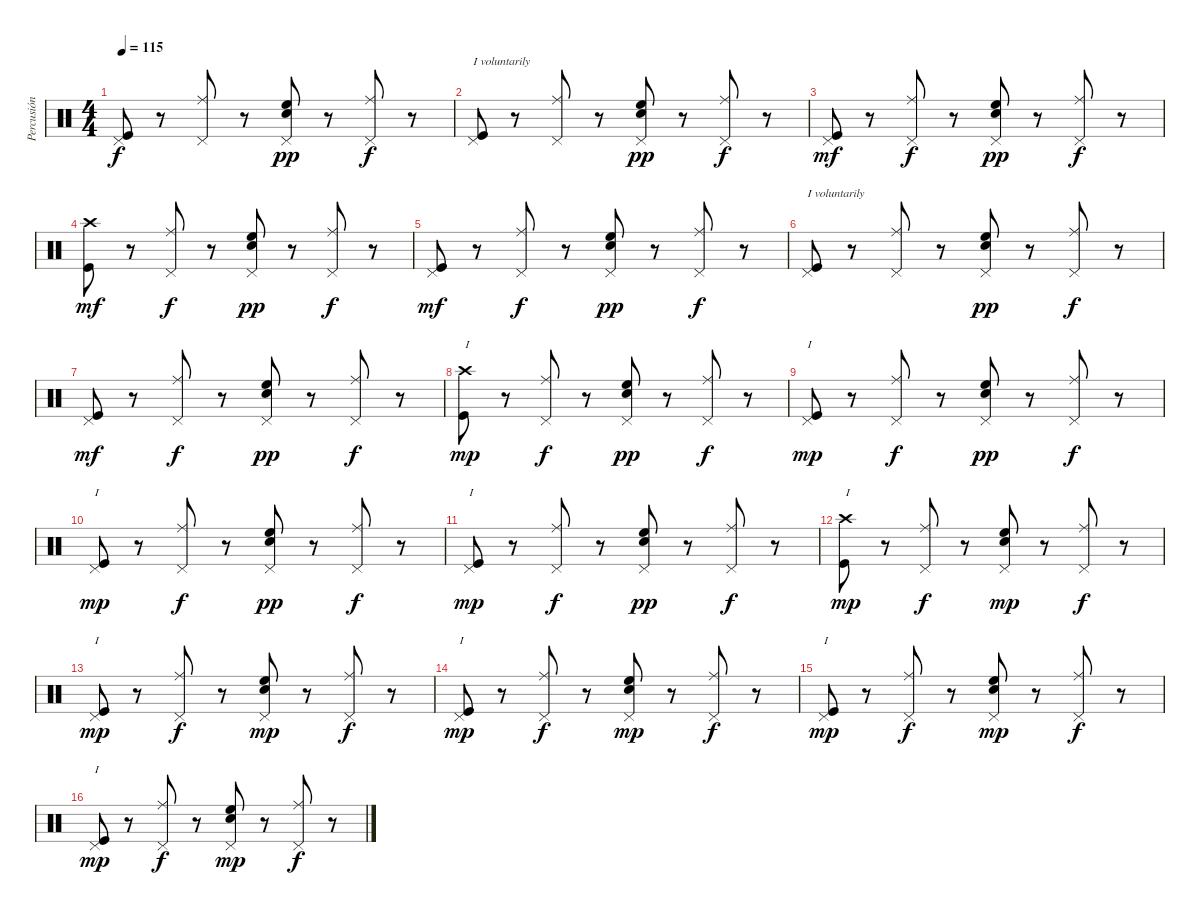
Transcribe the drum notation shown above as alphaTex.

\track ("Percusión" "Percusión") {instrument percussion}
\staff {score}
\articulation defaults
\ts (4 4)
\tempo 115
\clef neutral
\ks c
("Pedal Hi-Hat (hit)" "Kick (hit)").8{dy f} r.8 ("Pedal Hi-Hat (hit)" "Ride (middle)").8 r.8 ("Pedal Hi-Hat (hit)" "High Floor Tom (hit)" "Electric Snare (hit)").8{dy pp} r.8 ("Pedal Hi-Hat (hit)" "Ride (middle)").8{dy f} r.8 |
("Pedal Hi-Hat (hit)" "Kick (hit)").8{txt "I voluntarily"} r.8 ("Pedal Hi-Hat (hit)" "Ride (middle)").8 r.8 ("Pedal Hi-Hat (hit)" "High Floor Tom (hit)" "Electric Snare (hit)").8{dy pp} r.8 ("Pedal Hi-Hat (hit)" "Ride (middle)").8{dy f} r.8 |
("Pedal Hi-Hat (hit)" "Kick (hit)").8{dy mf} r.8 ("Pedal Hi-Hat (hit)" "Ride (middle)").8{dy f} r.8 ("Pedal Hi-Hat (hit)" "High Floor Tom (hit)" "Electric Snare (hit)").8{dy pp} r.8 ("Pedal Hi-Hat (hit)" "Ride (middle)").8{dy f} r.8 |
("Crash high (hit)" "Kick (hit)").8{dy mf} r.8 ("Pedal Hi-Hat (hit)" "Ride (middle)").8{dy f} r.8 ("Pedal Hi-Hat (hit)" "High Floor Tom (hit)" "Electric Snare (hit)").8{dy pp} r.8 ("Pedal Hi-Hat (hit)" "Ride (middle)").8{dy f} r.8 |
("Pedal Hi-Hat (hit)" "Kick (hit)").8{dy mf} r.8 ("Pedal Hi-Hat (hit)" "Ride (middle)").8{dy f} r.8 ("Pedal Hi-Hat (hit)" "High Floor Tom (hit)" "Electric Snare (hit)").8{dy pp} r.8 ("Pedal Hi-Hat (hit)" "Ride (middle)").8{dy f} r.8 |
("Pedal Hi-Hat (hit)" "Kick (hit)").8{txt "I voluntarily"} r.8 ("Pedal Hi-Hat (hit)" "Ride (middle)").8 r.8 ("Pedal Hi-Hat (hit)" "High Floor Tom (hit)" "Electric Snare (hit)").8{dy pp} r.8 ("Pedal Hi-Hat (hit)" "Ride (middle)").8{dy f} r.8 |
("Pedal Hi-Hat (hit)" "Kick (hit)").8{dy mf} r.8 ("Pedal Hi-Hat (hit)" "Ride (middle)").8{dy f} r.8 ("Pedal Hi-Hat (hit)" "High Floor Tom (hit)" "Electric Snare (hit)").8{dy pp} r.8 ("Pedal Hi-Hat (hit)" "Ride (middle)").8{dy f} r.8 |
("Crash high (hit)" "Kick (hit)").8{txt "I" dy mp} r.8 ("Pedal Hi-Hat (hit)" "Ride (middle)").8{dy f} r.8 ("Pedal Hi-Hat (hit)" "Electric Snare (hit)" "High Floor Tom (hit)").8{dy pp} r.8 ("Pedal Hi-Hat (hit)" "Ride (middle)").8{dy f} r.8 |
("Pedal Hi-Hat (hit)" "Kick (hit)").8{txt "I" dy mp} r.8 ("Pedal Hi-Hat (hit)" "Ride (middle)").8{dy f} r.8 ("Pedal Hi-Hat (hit)" "Electric Snare (hit)" "High Floor Tom (hit)").8{dy pp} r.8 ("Pedal Hi-Hat (hit)" "Ride (middle)").8{dy f} r.8 |
("Pedal Hi-Hat (hit)" "Kick (hit)").8{txt "I" dy mp} r.8 ("Pedal Hi-Hat (hit)" "Ride (middle)").8{dy f} r.8 ("Pedal Hi-Hat (hit)" "Electric Snare (hit)" "High Floor Tom (hit)").8{dy pp} r.8 ("Pedal Hi-Hat (hit)" "Ride (middle)").8{dy f} r.8 |
("Pedal Hi-Hat (hit)" "Kick (hit)").8{txt "I" dy mp} r.8 ("Pedal Hi-Hat (hit)" "Ride (middle)").8{dy f} r.8 ("Pedal Hi-Hat (hit)" "Electric Snare (hit)" "High Floor Tom (hit)").8{dy pp} r.8 ("Pedal Hi-Hat (hit)" "Ride (middle)").8{dy f} r.8 |
("Crash high (hit)" "Kick (hit)").8{txt "I" dy mp} r.8 ("Pedal Hi-Hat (hit)" "Ride (middle)").8{dy f} r.8 ("Pedal Hi-Hat (hit)" "Electric Snare (hit)" "High Floor Tom (hit)").8{dy mp} r.8 ("Pedal Hi-Hat (hit)" "Ride (middle)").8{dy f} r.8 |
("Pedal Hi-Hat (hit)" "Kick (hit)").8{txt "I" dy mp} r.8 ("Pedal Hi-Hat (hit)" "Ride (middle)").8{dy f} r.8 ("Pedal Hi-Hat (hit)" "Electric Snare (hit)" "High Floor Tom (hit)").8{dy mp} r.8 ("Pedal Hi-Hat (hit)" "Ride (middle)").8{dy f} r.8 |
("Pedal Hi-Hat (hit)" "Kick (hit)").8{txt "I" dy mp} r.8 ("Pedal Hi-Hat (hit)" "Ride (middle)").8{dy f} r.8 ("Pedal Hi-Hat (hit)" "Electric Snare (hit)" "High Floor Tom (hit)").8{dy mp} r.8 ("Pedal Hi-Hat (hit)" "Ride (middle)").8{dy f} r.8 |
("Pedal Hi-Hat (hit)" "Kick (hit)").8{txt "I" dy mp} r.8 ("Pedal Hi-Hat (hit)" "Ride (middle)").8{dy f} r.8 ("Pedal Hi-Hat (hit)" "Electric Snare (hit)" "High Floor Tom (hit)").8{dy mp} r.8 ("Pedal Hi-Hat (hit)" "Ride (middle)").8{dy f} r.8 |
("Pedal Hi-Hat (hit)" "Kick (hit)").8{txt "I" dy mp} r.8 ("Pedal Hi-Hat (hit)" "Ride (middle)").8{dy f} r.8 ("Pedal Hi-Hat (hit)" "Electric Snare (hit)" "High Floor Tom (hit)").8{dy mp} r.8 ("Pedal Hi-Hat (hit)" "Ride (middle)").8{dy f} r.8
